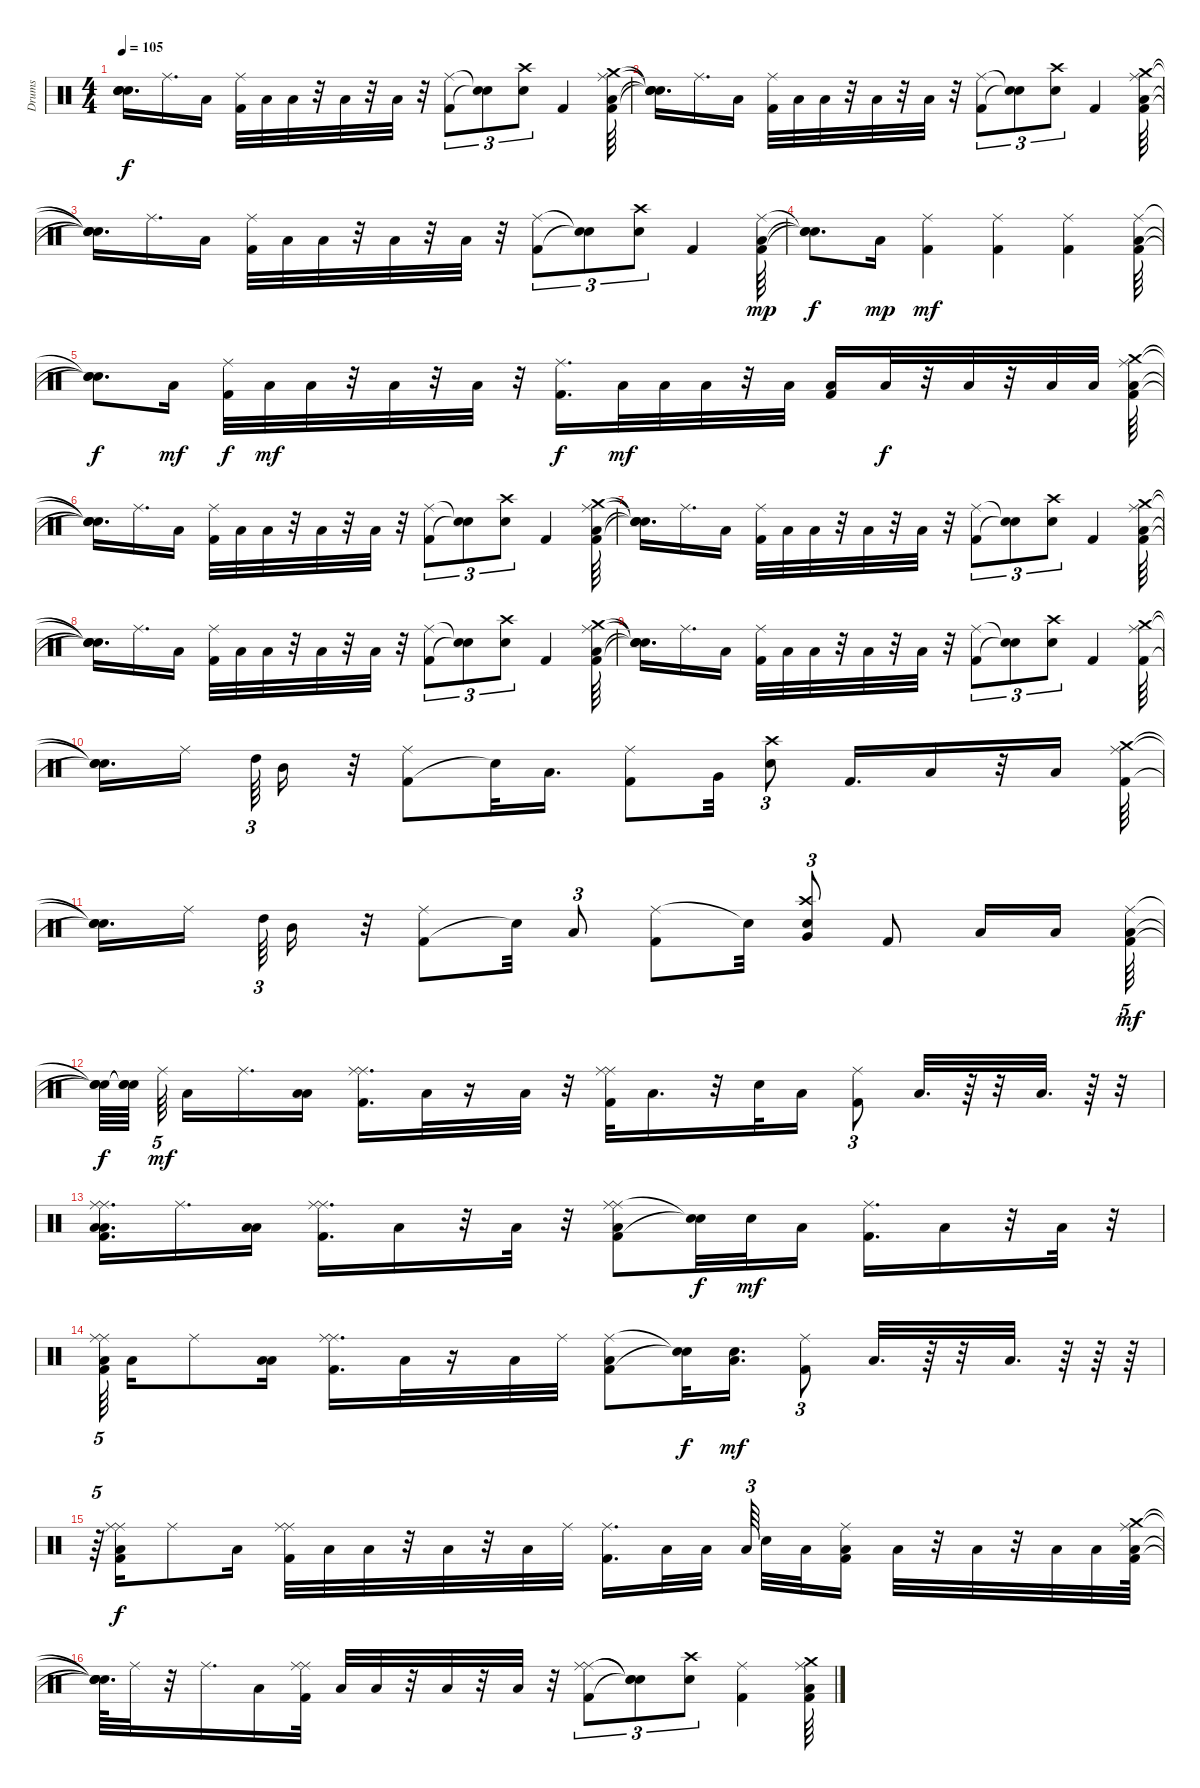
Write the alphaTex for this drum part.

\track ("Drums" "Drums") {instrument percussion}
\staff {score}
\articulation defaults
\ts (4 4)
\tempo 105
\clef neutral
\ks c
("Snare (hit)"{t} "Snare (hit)"{t} "Snare (hit)"{t} "Snare (hit)"{t}).16{d dy f} "Ride (middle)".16{d} "Low Tom (hit)".16 ("Kick (hit) 2" "Ride (middle)").32 "Low Tom (hit)".32 "Low Tom (hit)".32 r.32 "Low Tom (hit)".32 r.32 "Low Tom (hit)".32 r.32 ("Ride (middle)" "Kick (hit) 2").8{tu (3 2)} ("Snare (hit)"{t} "Snare (hit)"{t}).8{tu (3 2)} ("Electric Snare (hit)" "Crash high (hit)").8{tu (3 2)} "Kick (hit) 2".4 ("Low Tom (hit)" "Crash medium (hit)" "Kick (hit) 2" "Ride (middle)").64 |
("Snare (hit)"{t} "Snare (hit)"{t} "Snare (hit)"{t} "Snare (hit)"{t}).16{d} "Ride (middle)".16{d} "Low Tom (hit)".16 ("Kick (hit) 2" "Ride (middle)").32 "Low Tom (hit)".32 "Low Tom (hit)".32 r.32 "Low Tom (hit)".32 r.32 "Low Tom (hit)".32 r.32 ("Ride (middle)" "Kick (hit) 2").8{tu (3 2)} ("Snare (hit)"{t} "Snare (hit)"{t}).8{tu (3 2)} ("Electric Snare (hit)" "Crash high (hit)").8{tu (3 2)} "Kick (hit) 2".4 ("Low Tom (hit)" "Crash medium (hit)" "Kick (hit) 2" "Ride (middle)").64 |
("Snare (hit)"{t} "Snare (hit)"{t} "Snare (hit)"{t} "Snare (hit)"{t}).16{d} "Ride (middle)".16{d} "Low Tom (hit)".16 ("Kick (hit) 2" "Ride (middle)").32 "Low Tom (hit)".32 "Low Tom (hit)".32 r.32 "Low Tom (hit)".32 r.32 "Low Tom (hit)".32 r.32 ("Ride (middle)" "Kick (hit) 2").8{tu (3 2)} ("Snare (hit)"{t} "Snare (hit)"{t}).8{tu (3 2)} ("Electric Snare (hit)" "Crash high (hit)").8{tu (3 2)} "Kick (hit) 2".4 ("Low Tom (hit)" "Kick (hit) 2" "Ride (middle)").64{dy mp} |
("Snare (hit)"{t} "Snare (hit)"{t} "Snare (hit)"{t}).8{d dy f} "Low Tom (hit)".16{dy mp} ("Ride (middle)" "Kick (hit) 2").4{dy mf} ("Ride (middle)" "Kick (hit) 2").4 ("Ride (middle)" "Kick (hit) 2").4 ("Low Tom (hit)" "Kick (hit) 2" "Ride (middle)").64 |
("Snare (hit)"{t} "Snare (hit)"{t} "Snare (hit)"{t}).8{d dy f} "Low Tom (hit)".16{dy mf} ("Ride (middle)" "Kick (hit) 2").32{dy f} "Low Tom (hit)".32{dy mf} "Low Tom (hit)".32 r.32 "Low Tom (hit)".32 r.32 "Low Tom (hit)".32 r.32 ("Ride (middle)" "Kick (hit) 2").16{d dy f} "Low Tom (hit)".32{dy mf} "Low Tom (hit)".32 "Low Tom (hit)".32 r.32 "Low Tom (hit)".32 ("Low Tom (hit)" "Kick (hit) 2").16 "Low Tom (hit)".32{dy f} r.32 "Low Tom (hit)".32 r.32 "Low Tom (hit)".32 "Low Tom (hit)".32 ("Low Tom (hit)" "Crash medium (hit)" "Kick (hit) 2" "Ride (middle)").64 |
("Snare (hit)"{t} "Snare (hit)"{t} "Snare (hit)"{t} "Snare (hit)"{t}).16{d} "Ride (middle)".16{d} "Low Tom (hit)".16 ("Kick (hit) 2" "Ride (middle)").32 "Low Tom (hit)".32 "Low Tom (hit)".32 r.32 "Low Tom (hit)".32 r.32 "Low Tom (hit)".32 r.32 ("Ride (middle)" "Kick (hit) 2").8{tu (3 2)} ("Snare (hit)"{t} "Snare (hit)"{t}).8{tu (3 2)} ("Electric Snare (hit)" "Crash high (hit)").8{tu (3 2)} "Kick (hit) 2".4 ("Low Tom (hit)" "Crash medium (hit)" "Kick (hit) 2" "Ride (middle)").64 |
("Snare (hit)"{t} "Snare (hit)"{t} "Snare (hit)"{t} "Snare (hit)"{t}).16{d} "Ride (middle)".16{d} "Low Tom (hit)".16 ("Kick (hit) 2" "Ride (middle)").32 "Low Tom (hit)".32 "Low Tom (hit)".32 r.32 "Low Tom (hit)".32 r.32 "Low Tom (hit)".32 r.32 ("Ride (middle)" "Kick (hit) 2").8{tu (3 2)} ("Snare (hit)"{t} "Snare (hit)"{t}).8{tu (3 2)} ("Electric Snare (hit)" "Crash high (hit)").8{tu (3 2)} "Kick (hit) 2".4 ("Low Tom (hit)" "Crash medium (hit)" "Kick (hit) 2" "Ride (middle)").64 |
("Snare (hit)"{t} "Snare (hit)"{t} "Snare (hit)"{t} "Snare (hit)"{t}).16{d} "Ride (middle)".16{d} "Low Tom (hit)".16 ("Kick (hit) 2" "Ride (middle)").32 "Low Tom (hit)".32 "Low Tom (hit)".32 r.32 "Low Tom (hit)".32 r.32 "Low Tom (hit)".32 r.32 ("Ride (middle)" "Kick (hit) 2").8{tu (3 2)} ("Snare (hit)"{t} "Snare (hit)"{t}).8{tu (3 2)} ("Electric Snare (hit)" "Crash high (hit)").8{tu (3 2)} "Kick (hit) 2".4 ("Low Tom (hit)" "Crash medium (hit)" "Kick (hit) 2" "Ride (middle)").64 |
("Snare (hit)"{t} "Snare (hit)"{t} "Snare (hit)"{t} "Snare (hit)"{t}).16{d} "Ride (middle)".16{d} "Low Tom (hit)".16 ("Kick (hit) 2" "Ride (middle)").32 "Low Tom (hit)".32 "Low Tom (hit)".32 r.32 "Low Tom (hit)".32 r.32 "Low Tom (hit)".32 r.32 ("Ride (middle)" "Kick (hit) 2").8{tu (3 2)} ("Snare (hit)"{t} "Snare (hit)"{t}).8{tu (3 2)} ("Electric Snare (hit)" "Crash high (hit)").8{tu (3 2)} "Kick (hit) 2".4 ("Crash medium (hit)" "Kick (hit) 2" "Ride (middle)").64 |
("Snare (hit)"{t} "Snare (hit)"{t} "Snare (hit)"{t}).16{d} "Ride (middle)".16 "High Tom (hit)".64{tu (3 2)} "Mid Tom (hit)".16 r.32 ("Kick (hit) 2" "Ride (middle)").8 "Snare (hit)"{t}.32 "Low Tom (hit)".16{d} ("Ride (middle)" "Kick (hit) 2").8 "Very Low Tom (hit)".32 ("Electric Snare (hit)" "Crash high (hit)").8{tu (3 2)} "Kick (hit) 2".16{d} "Low Floor Tom (hit)".16 r.32 "Low Floor Tom (hit)".16 ("Crash medium (hit)" "Kick (hit) 2" "Ride (middle)").64 |
("Snare (hit)"{t} "Snare (hit)"{t} "Snare (hit)"{t}).16{d} "Ride (middle)".16 "High Tom (hit)".64{tu (3 2)} "Mid Tom (hit)".16 r.32 ("Kick (hit) 2" "Ride (middle)").8 "Snare (hit)"{t}.32 "Low Tom (hit)".8{tu (3 2)} ("Ride (middle)" "Kick (hit) 2").8 "Snare (hit)"{t}.32 ("Very Low Tom (hit)" "Electric Snare (hit)" "Crash high (hit)").8{tu (3 2)} "Kick (hit) 2".8 "Low Floor Tom (hit)".16 "Low Floor Tom (hit)".16 ("Low Tom (hit)" "Kick (hit) 2" "Ride (middle)").64{tu (5 4) dy mf} |
("Snare (hit)"{t} "Snare (hit)"{t} "Snare (hit)"{t}).64{dy f} ("Snare (hit)"{t} "Snare (hit)"{t} "Snare (hit)"{t}).64 "Ride (middle)".64{tu (5 4) dy mf} "Low Tom (hit)".16 "Ride (middle)".16{d} ("Low Tom (hit)" "Low Tom (hit)").16 ("Kick (hit) 2" "Ride (middle)" "Ride (middle)").16{d} "Low Tom (hit)".32 r.16 "Low Tom (hit)".32 r.32 ("Ride (middle)" "Kick (hit) 2" "Ride (middle)").32 "Low Tom (hit)".16{d} r.32 "Electric Snare (hit)".32 "Low Tom (hit)".16 ("Kick (hit) 2" "Ride (middle)").8{tu (3 2)} "Low Tom (hit)".32{d} r.64 r.32 "Low Tom (hit)".32{d} r.64 r.32 |
("Low Tom (hit)" "Kick (hit) 2" "Ride (middle)" "Low Tom (hit)" "Ride (middle)").16{d} "Ride (middle)".16{d} ("Low Tom (hit)" "Low Tom (hit)").16 ("Kick (hit) 2" "Ride (middle)" "Ride (middle)").16{d} "Low Tom (hit)".16 r.32 "Low Tom (hit)".32 r.32 ("Ride (middle)" "Kick (hit) 2" "Ride (middle)" "Low Tom (hit)").8 ("Snare (hit)"{t} "Snare (hit)"{t}).32{dy f} "Electric Snare (hit)".32{dy mf} "Low Tom (hit)".16 ("Kick (hit) 2" "Ride (middle)").16{d} "Low Tom (hit)".16 r.32 "Low Tom (hit)".32 r.32 |
("Low Tom (hit)" "Kick (hit) 2" "Ride (middle)" "Ride (middle)").64{tu (5 4)} "Low Tom (hit)".16 "Ride (middle)".8 ("Low Tom (hit)" "Low Tom (hit)").16 ("Kick (hit) 2" "Ride (middle)" "Ride (middle)").16{d} "Low Tom (hit)".32 r.16 "Low Tom (hit)".32 "Ride (middle)".32 ("Kick (hit) 2" "Ride (middle)" "Low Tom (hit)").8 ("Snare (hit)"{t} "Snare (hit)"{t}).32{dy f} ("Electric Snare (hit)" "Low Tom (hit)").16{d dy mf} ("Kick (hit) 2" "Ride (middle)").8{tu (3 2)} "Low Tom (hit)".32{d} r.64 r.32 "Low Tom (hit)".32{d} r.64 r.64 r.64 |
r.64{tu (5 4)} ("Low Tom (hit)" "Kick (hit) 2" "Ride (middle)" "Ride (middle)").16{dy f} "Ride (middle)".8 "Low Tom (hit)".16 ("Kick (hit) 2" "Ride (middle)" "Ride (middle)").32 "Low Tom (hit)".32 "Low Tom (hit)".32 r.32 "Low Tom (hit)".32 r.32 "Low Tom (hit)".32 "Ride (middle)".32 ("Kick (hit) 2" "Ride (middle)").16{d} "Low Tom (hit)".32 "Low Tom (hit)".32 "Low Tom (hit)".64{tu (3 2)} "Electric Snare (hit)".32 "Low Tom (hit)".32 ("Low Tom (hit)" "Kick (hit) 2" "Ride (middle)").16 "Low Tom (hit)".32 r.32 "Low Tom (hit)".32 r.32 "Low Tom (hit)".32 "Low Tom (hit)".32 ("Low Tom (hit)" "Crash medium (hit)" "Kick (hit) 2" "Ride (middle)").64 |
("Snare (hit)"{t} "Snare (hit)"{t} "Snare (hit)"{t} "Snare (hit)"{t}).64{d} "Ride (middle)".32 r.32 "Ride (middle)".16{d} "Low Tom (hit)".16 ("Kick (hit) 2" "Ride (middle)" "Ride (middle)").32 "Low Tom (hit)".32 "Low Tom (hit)".32 r.32 "Low Tom (hit)".32 r.32 "Low Tom (hit)".32 r.32 ("Ride (middle)" "Kick (hit) 2" "Ride (middle)").8{tu (3 2)} ("Snare (hit)"{t} "Snare (hit)"{t} "Snare (hit)"{t}).8{tu (3 2)} ("Electric Snare (hit)" "Crash high (hit)").8{tu (3 2)} ("Kick (hit) 2" "Ride (middle)").4 ("Low Tom (hit)" "Crash medium (hit)" "Kick (hit) 2" "Ride (middle)").64
